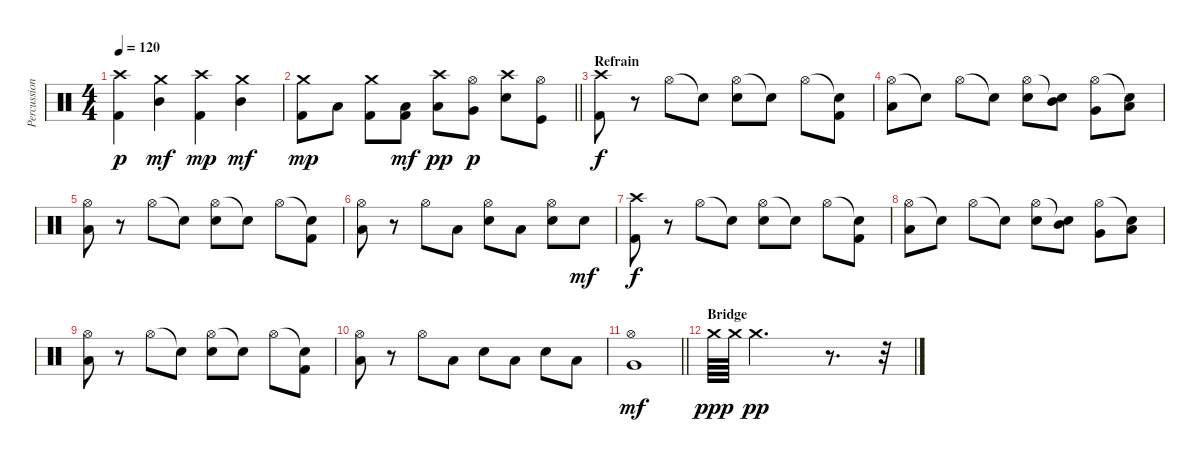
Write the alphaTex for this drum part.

\track ("Percussions" "Percussion") {instrument percussion}
\staff {score}
\articulation defaults
\ts (4 4)
\tempo 120
\clef neutral
\ks c
("Crash high (hit)" "Kick (hit) 2").4{dy p} ("Crash medium (hit)" "Mid Tom (hit)").4{dy mf} ("Crash high (hit)" "Kick (hit) 2").4{dy mp} ("Crash medium (hit)" "Mid Tom (hit)").4{dy mf} |
\barLineRight lightlight
("Crash medium (hit)" "Kick (hit) 2").8{dy mp volume 7} "Low Floor Tom (hit)".8 ("Crash medium (hit)" "Kick (hit) 2").8 ("Low Floor Tom (hit)" "Kick (hit) 2").8{dy mf} ("Low Tom (hit)" "Crash high (hit)").8{dy pp} ("Very Low Tom (hit)" "Hi-Hat (open)").8{dy p} ("Snare (hit) 2" "Crash high (hit)").8 ("Kick (hit)" "Hi-Hat (open)").8 |
\section ("" "Refrain")
("Kick (hit) 2" "Crash high (hit)").8{dy f} r.8 "Hi-Hat (open)".8 "Snare (hit)"{t}.8 ("Hi-Hat (open)" "Snare (hit) 2").8 "Snare (hit)"{t}.8 "Hi-Hat (open)".8 ("Snare (hit)"{t} "Kick (hit) 2").8 |
("Hi-Hat (open)" "Low Tom (hit)").8 "Snare (hit)"{t}.8 "Hi-Hat (open)".8 "Snare (hit)"{t}.8 ("Hi-Hat (open)" "Snare (hit) 2").8 ("Snare (hit)"{t} "Mid Tom (hit)").8 ("Hi-Hat (open)" "Very Low Tom (hit)").8 ("Snare (hit)"{t} "Low Floor Tom (hit)").8 |
("Hi-Hat (open)" "Low Tom (hit)").8 r.8 "Hi-Hat (open)".8 "Snare (hit)"{t}.8 ("Hi-Hat (open)" "Snare (hit) 2").8 "Snare (hit)"{t}.8 "Hi-Hat (open)".8 ("Snare (hit)"{t} "Kick (hit) 2").8 |
("Hi-Hat (open)" "Low Tom (hit)").8 r.8 "Hi-Hat (open)".8 "Low Tom (hit)".8 ("Hi-Hat (open)" "Snare (hit) 2").8 "Low Floor Tom (hit)".8 ("Hi-Hat (open)" "Snare (hit) 2").8 "Snare (hit) 2".8{dy mf} |
("Kick (hit) 2" "Crash high (hit)").8{dy f} r.8 "Hi-Hat (open)".8 "Snare (hit)"{t}.8 ("Hi-Hat (open)" "Snare (hit) 2").8 "Snare (hit)"{t}.8 "Hi-Hat (open)".8 ("Snare (hit)"{t} "Kick (hit) 2").8 |
("Hi-Hat (open)" "Low Tom (hit)").8 "Snare (hit)"{t}.8 "Hi-Hat (open)".8 "Snare (hit)"{t}.8 ("Hi-Hat (open)" "Snare (hit) 2").8 ("Snare (hit)"{t} "Mid Tom (hit)").8 ("Hi-Hat (open)" "Very Low Tom (hit)").8 ("Snare (hit)"{t} "Low Floor Tom (hit)").8 |
("Hi-Hat (open)" "Low Tom (hit)").8 r.8 "Hi-Hat (open)".8 "Snare (hit)"{t}.8 ("Hi-Hat (open)" "Snare (hit) 2").8 "Snare (hit)"{t}.8 "Hi-Hat (open)".8 ("Snare (hit)"{t} "Kick (hit) 2").8 |
("Hi-Hat (open)" "Low Tom (hit)").8 r.8 "Hi-Hat (open)".8 "Low Tom (hit)".8 "Snare (hit) 2".8 "Low Floor Tom (hit)".8 "Snare (hit) 2".8 "Low Floor Tom (hit)".8 |
\barLineRight lightlight
("Very Low Tom (hit)" "Hi-Hat (open)").1{dy mf} |
\section ("" "Bridge")
"Crash medium (hit)".64{dy ppp} "Crash medium (hit)".64 "Crash medium (hit)".2{d dy pp} r.8{d} r.32
